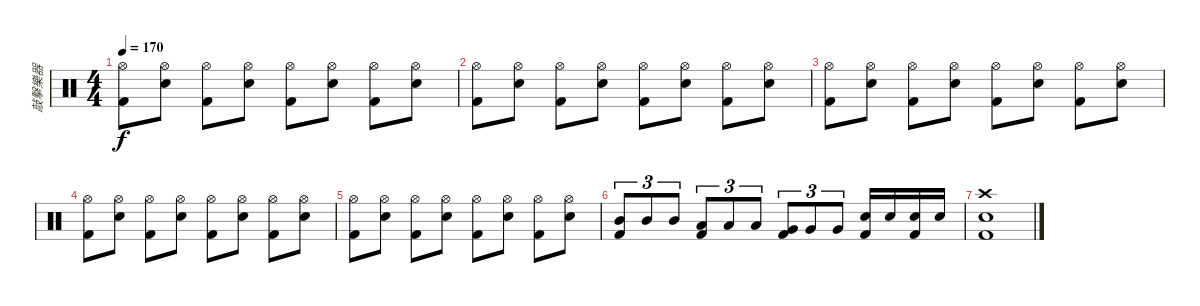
\track ("敲擊樂器" "敲擊樂器") {instrument percussion}
\staff {score}
\articulation defaults
\ts (4 4)
\tempo 170
\clef neutral
\ks c
("Hi-Hat (open)" "Kick (hit) 2").8{dy f} ("Hi-Hat (open)" "Snare (hit) 2").8 ("Hi-Hat (open)" "Kick (hit) 2").8 ("Hi-Hat (open)" "Snare (hit) 2").8 ("Hi-Hat (open)" "Kick (hit) 2").8 ("Hi-Hat (open)" "Snare (hit) 2").8 ("Hi-Hat (open)" "Kick (hit) 2").8 ("Hi-Hat (open)" "Snare (hit) 2").8 |
("Hi-Hat (open)" "Kick (hit) 2").8 ("Hi-Hat (open)" "Snare (hit) 2").8 ("Hi-Hat (open)" "Kick (hit) 2").8 ("Hi-Hat (open)" "Snare (hit) 2").8 ("Hi-Hat (open)" "Kick (hit) 2").8 ("Hi-Hat (open)" "Snare (hit) 2").8 ("Hi-Hat (open)" "Kick (hit) 2").8 ("Hi-Hat (open)" "Snare (hit) 2").8 |
("Hi-Hat (open)" "Kick (hit) 2").8 ("Hi-Hat (open)" "Snare (hit) 2").8 ("Hi-Hat (open)" "Kick (hit) 2").8 ("Hi-Hat (open)" "Snare (hit) 2").8 ("Hi-Hat (open)" "Kick (hit) 2").8 ("Hi-Hat (open)" "Snare (hit) 2").8 ("Hi-Hat (open)" "Kick (hit) 2").8 ("Hi-Hat (open)" "Snare (hit) 2").8 |
("Hi-Hat (open)" "Kick (hit) 2").8 ("Hi-Hat (open)" "Snare (hit) 2").8 ("Hi-Hat (open)" "Kick (hit) 2").8 ("Hi-Hat (open)" "Snare (hit) 2").8 ("Hi-Hat (open)" "Kick (hit) 2").8 ("Hi-Hat (open)" "Snare (hit) 2").8 ("Hi-Hat (open)" "Kick (hit) 2").8 ("Hi-Hat (open)" "Snare (hit) 2").8 |
("Hi-Hat (open)" "Kick (hit) 2").8 ("Hi-Hat (open)" "Snare (hit) 2").8 ("Hi-Hat (open)" "Kick (hit) 2").8 ("Hi-Hat (open)" "Snare (hit) 2").8 ("Hi-Hat (open)" "Kick (hit) 2").8 ("Hi-Hat (open)" "Snare (hit) 2").8 ("Hi-Hat (open)" "Kick (hit) 2").8 ("Hi-Hat (open)" "Snare (hit) 2").8 |
("Mid Tom (hit)" "Kick (hit) 2").8{tu (3 2)} "Mid Tom (hit)".8{tu (3 2)} "Mid Tom (hit)".8{tu (3 2)} ("Low Tom (hit)" "Kick (hit) 2").8{tu (3 2)} "Low Tom (hit)".8{tu (3 2)} "Low Tom (hit)".8{tu (3 2)} ("Very Low Tom (hit)" "Kick (hit) 2").8{tu (3 2)} "Very Low Tom (hit)".8{tu (3 2)} "Very Low Tom (hit)".8{tu (3 2)} ("Snare (hit) 2" "Kick (hit) 2").16 "Snare (hit) 2".16 ("Snare (hit) 2" "Kick (hit) 2").16 "Snare (hit) 2".16 |
("Crash high (hit)" "Snare (hit) 2" "Kick (hit) 2").1
